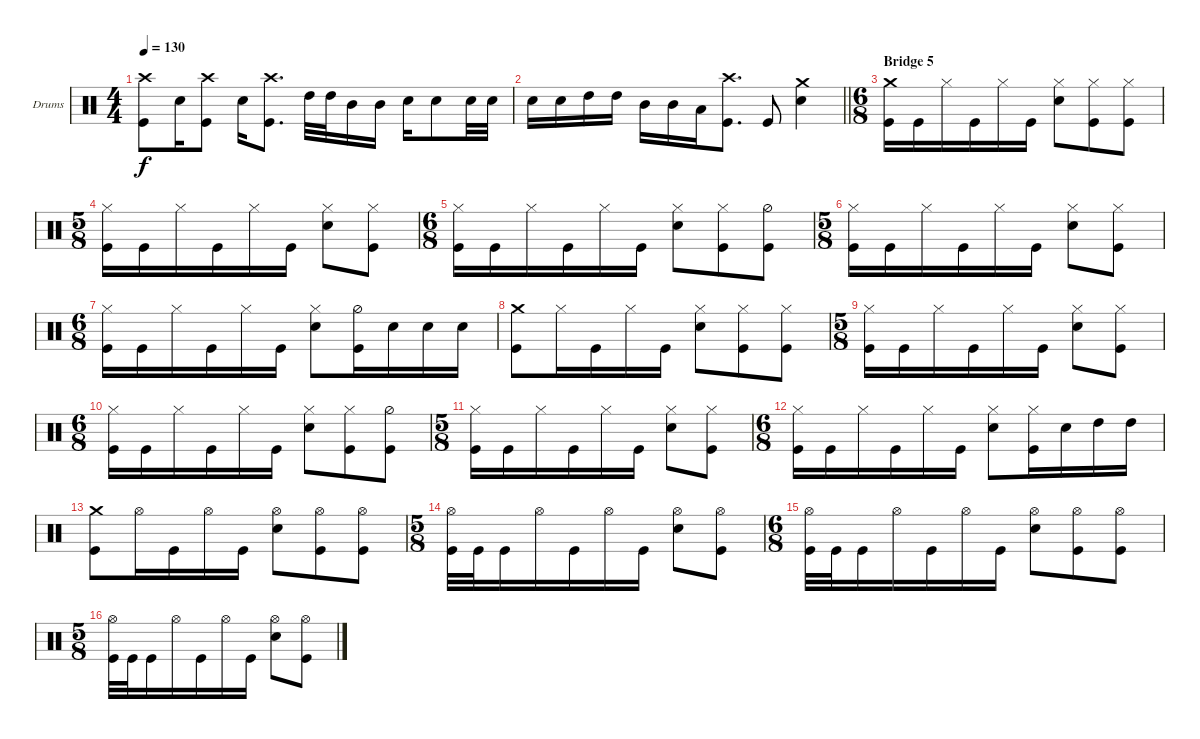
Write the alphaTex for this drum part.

\bracketExtendMode groupsimilarinstruments
\firstSystemTrackNameOrientation horizontal
\otherSystemsTrackNameOrientation horizontal
\track ("drums (Anton Zulganov)" "Drums") {instrument percussion}
\staff {score}
\articulation defaults
\ts (4 4)
\tempo 130
\clef neutral
\ks aminor
("Kick (hit)" "Crash high (hit)").8{dy f} "Snare (hit) 2".16 ("Crash high (hit)" "Kick (hit)").8 "Snare (hit) 2".16 ("Crash high (hit)" "Kick (hit)").8{d} "High Tom (hit)".32 "High Tom (hit)".32 "Mid Tom (hit)".16 "Mid Tom (hit)".16 "Snare (hit) 2".16 "Snare (hit) 2".8 "Snare (hit) 2".32 "Snare (hit) 2".32 |
\barLineRight lightlight "Snare (hit) 2".16 "Snare (hit) 2".16 "High Tom (hit)".16 "High Tom (hit)".16 "Mid Tom (hit)".16 "Mid Tom (hit)".16 "Low Tom (hit)".16
("Kick (hit)" "Crash high (hit)").8{d} "Kick (hit)".8 ("Snare (hit) 2" "Crash medium (hit)").4 |
\ts (6 8)
\beaming (8 3 3)
\section ("" "Bridge 5")
("Crash medium (hit)" "Kick (hit)").16 "Kick (hit)".16 "Hi-Hat (closed)".16 "Kick (hit)".16 "Hi-Hat (closed)".16 "Kick (hit)".16 ("Hi-Hat (closed)" "Snare (hit) 2").8 ("Hi-Hat (closed)" "Kick (hit)").8 ("Hi-Hat (closed)" "Kick (hit)").8 |
\ts (5 8)
\beaming (8 3 2)
("Hi-Hat (closed)" "Kick (hit)").16 "Kick (hit)".16 "Hi-Hat (closed)".16 "Kick (hit)".16 "Hi-Hat (closed)".16 "Kick (hit)".16 ("Hi-Hat (closed)" "Snare (hit) 2").8 ("Hi-Hat (closed)" "Kick (hit)").8 |
\ts (6 8)
\beaming (8 3 3)
("Hi-Hat (closed)" "Kick (hit)").16 "Kick (hit)".16 "Hi-Hat (closed)".16 "Kick (hit)".16 "Hi-Hat (closed)".16 "Kick (hit)".16 ("Hi-Hat (closed)" "Snare (hit) 2").8 ("Hi-Hat (closed)" "Kick (hit)").8 ("Hi-Hat (half)" "Kick (hit)").8 |
\ts (5 8)
\beaming (8 3 2)
("Hi-Hat (closed)" "Kick (hit)").16 "Kick (hit)".16 "Hi-Hat (closed)".16 "Kick (hit)".16 "Hi-Hat (closed)".16 "Kick (hit)".16 ("Hi-Hat (closed)" "Snare (hit) 2").8 ("Hi-Hat (closed)" "Kick (hit)").8 |
\ts (6 8)
\beaming (8 3 3)
("Hi-Hat (closed)" "Kick (hit)").16 "Kick (hit)".16 "Hi-Hat (closed)".16 "Kick (hit)".16 "Hi-Hat (closed)".16 "Kick (hit)".16 ("Hi-Hat (closed)" "Snare (hit) 2").8 ("Hi-Hat (half)" "Kick (hit)").16 "Snare (hit) 2".16 "Snare (hit) 2".16 "Snare (hit) 2".16 |
("Crash medium (hit)" "Kick (hit)").8 "Hi-Hat (closed)".16 "Kick (hit)".16 "Hi-Hat (closed)".16 "Kick (hit)".16 ("Hi-Hat (closed)" "Snare (hit) 2").8 ("Hi-Hat (closed)" "Kick (hit)").8 ("Hi-Hat (closed)" "Kick (hit)").8 |
\ts (5 8)
\beaming (8 3 3)
("Hi-Hat (closed)" "Kick (hit)").16 "Kick (hit)".16 "Hi-Hat (closed)".16 "Kick (hit)".16 "Hi-Hat (closed)".16 "Kick (hit)".16 ("Hi-Hat (closed)" "Snare (hit) 2").8 ("Hi-Hat (closed)" "Kick (hit)").8 |
\ts (6 8)
\beaming (8 3 3)
("Hi-Hat (closed)" "Kick (hit)").16 "Kick (hit)".16 "Hi-Hat (closed)".16 "Kick (hit)".16 "Hi-Hat (closed)".16 "Kick (hit)".16 ("Hi-Hat (closed)" "Snare (hit) 2").8 ("Hi-Hat (closed)" "Kick (hit)").8 ("Hi-Hat (half)" "Kick (hit)").8 |
\ts (5 8)
\beaming (8 3 3)
("Hi-Hat (closed)" "Kick (hit)").16 "Kick (hit)".16 "Hi-Hat (closed)".16 "Kick (hit)".16 "Hi-Hat (closed)".16 "Kick (hit)".16 ("Hi-Hat (closed)" "Snare (hit) 2").8 ("Hi-Hat (closed)" "Kick (hit)").8 |
\ts (6 8)
\beaming (8 3 3)
("Hi-Hat (closed)" "Kick (hit)").16 "Kick (hit)".16 "Hi-Hat (closed)".16 "Kick (hit)".16 "Hi-Hat (closed)".16 "Kick (hit)".16 ("Hi-Hat (closed)" "Snare (hit) 2").8 ("Hi-Hat (closed)" "Kick (hit)").16 "Snare (hit) 2".16 "High Tom (hit)".16 "High Tom (hit)".16 |
("Crash medium (hit)" "Kick (hit)").8 "Hi-Hat (open)".16 "Kick (hit)".16 "Hi-Hat (open)".16 "Kick (hit)".16 ("Hi-Hat (open)" "Snare (hit) 2").8 ("Hi-Hat (open)" "Kick (hit)").8 ("Hi-Hat (open)" "Kick (hit)").8 |
\ts (5 8)
\beaming (8 3 3)
("Hi-Hat (open)" "Kick (hit)").32 "Kick (hit)".32 "Kick (hit)".16 "Hi-Hat (open)".16 "Kick (hit)".16 "Hi-Hat (open)".16 "Kick (hit)".16 ("Hi-Hat (open)" "Snare (hit) 2").8 ("Hi-Hat (open)" "Kick (hit)").8 |
\ts (6 8)
\beaming (8 3 3)
("Hi-Hat (open)" "Kick (hit)").32 "Kick (hit)".32 "Kick (hit)".16 "Hi-Hat (open)".16 "Kick (hit)".16 "Hi-Hat (open)".16 "Kick (hit)".16 ("Hi-Hat (open)" "Snare (hit) 2").8 ("Hi-Hat (open)" "Kick (hit)").8 ("Hi-Hat (open)" "Kick (hit)").8 |
\ts (5 8)
\beaming (8 3 3)
("Hi-Hat (open)" "Kick (hit)").32 "Kick (hit)".32 "Kick (hit)".16 "Hi-Hat (open)".16 "Kick (hit)".16 "Hi-Hat (open)".16 "Kick (hit)".16 ("Hi-Hat (open)" "Snare (hit) 2").8 ("Hi-Hat (open)" "Kick (hit)").8
